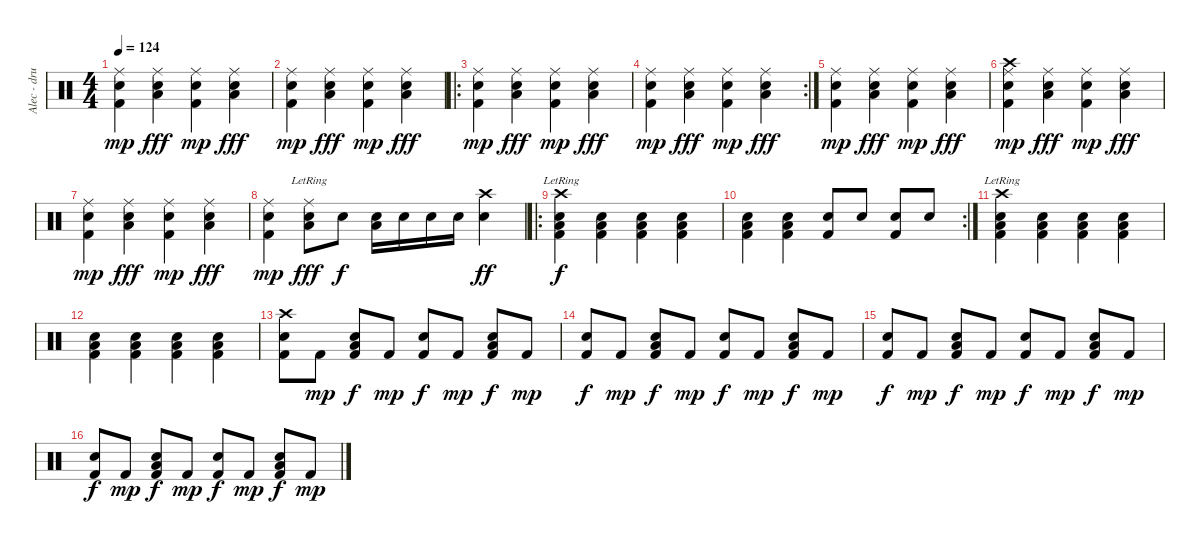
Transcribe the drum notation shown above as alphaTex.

\track ("Alec - drums" "Alec - dru") {instrument percussion}
\staff {score}
\articulation defaults
\ts (4 4)
\tempo 124
\clef neutral
\ks c
("Ride (middle)" "Snare (hit) 2" "Kick (hit) 2").4{dy mp} ("Ride (middle)" "Low Tom (hit)" "Snare (hit) 2").4{dy fff} ("Ride (middle)" "Snare (hit) 2" "Kick (hit) 2").4{dy mp} ("Ride (middle)" "Low Tom (hit)" "Snare (hit) 2").4{dy fff} |
("Ride (middle)" "Snare (hit) 2" "Kick (hit) 2").4{dy mp} ("Ride (middle)" "Low Tom (hit)" "Snare (hit) 2").4{dy fff} ("Ride (middle)" "Snare (hit) 2" "Kick (hit) 2").4{dy mp} ("Ride (middle)" "Low Tom (hit)" "Snare (hit) 2").4{dy fff} |
\ro
("Ride (middle)" "Snare (hit) 2" "Kick (hit) 2").4{dy mp} ("Ride (middle)" "Low Tom (hit)" "Snare (hit) 2").4{dy fff} ("Ride (middle)" "Snare (hit) 2" "Kick (hit) 2").4{dy mp} ("Ride (middle)" "Low Tom (hit)" "Snare (hit) 2").4{dy fff} |
\rc 2
("Ride (middle)" "Snare (hit) 2" "Kick (hit) 2").4{dy mp} ("Ride (middle)" "Low Tom (hit)" "Snare (hit) 2").4{dy fff} ("Ride (middle)" "Snare (hit) 2" "Kick (hit) 2").4{dy mp} ("Ride (middle)" "Low Tom (hit)" "Snare (hit) 2").4{dy fff} |
("Ride (middle)" "Snare (hit) 2" "Kick (hit) 2").4{dy mp} ("Ride (middle)" "Low Tom (hit)" "Snare (hit) 2").4{dy fff} ("Ride (middle)" "Snare (hit) 2" "Kick (hit) 2").4{dy mp} ("Ride (middle)" "Low Tom (hit)" "Snare (hit) 2").4{dy fff} |
("Crash high (hit)" "Ride (middle)" "Snare (hit) 2" "Kick (hit) 2").4{dy mp} ("Ride (middle)" "Low Tom (hit)" "Snare (hit) 2").4{dy fff} ("Ride (middle)" "Snare (hit) 2" "Kick (hit) 2").4{dy mp} ("Ride (middle)" "Low Tom (hit)" "Snare (hit) 2").4{dy fff} |
("Ride (middle)" "Snare (hit) 2" "Kick (hit) 2").4{dy mp} ("Ride (middle)" "Low Tom (hit)" "Snare (hit) 2").4{dy fff} ("Ride (middle)" "Snare (hit) 2" "Kick (hit) 2").4{dy mp} ("Ride (middle)" "Low Tom (hit)" "Snare (hit) 2").4{dy fff} |
("Ride (middle)" "Snare (hit) 2" "Kick (hit) 2").4{dy mp} ("Ride (middle)"{lr} "Low Tom (hit)"{lr} "Snare (hit) 2").8{dy fff} "Snare (hit) 2".8{dy f} ("Low Tom (hit)" "Snare (hit) 2").16 "Snare (hit) 2".16 "Snare (hit) 2".16 "Snare (hit) 2".16 ("Crash high (hit)" "Snare (hit) 2").4{dy ff} |
\ro
("Crash high (hit)"{lr} "Kick (hit) 2" "Snare (hit) 2" "Low Tom (hit)").4{dy f} ("Kick (hit) 2" "Snare (hit) 2" "Low Tom (hit)").4 ("Kick (hit) 2" "Snare (hit) 2" "Low Tom (hit)").4 ("Kick (hit) 2" "Snare (hit) 2" "Low Tom (hit)").4 |
\rc 2
("Kick (hit) 2" "Snare (hit) 2" "Low Tom (hit)").4 ("Kick (hit) 2" "Snare (hit) 2" "Low Tom (hit)").4 ("Kick (hit) 2" "Snare (hit) 2").8 "Snare (hit) 2".8 ("Kick (hit) 2" "Snare (hit) 2").8 "Snare (hit) 2".8 |
("Crash high (hit)"{lr} "Kick (hit) 2" "Snare (hit) 2" "Low Tom (hit)").4 ("Kick (hit) 2" "Snare (hit) 2" "Low Tom (hit)").4 ("Kick (hit) 2" "Snare (hit) 2" "Low Tom (hit)").4 ("Kick (hit) 2" "Snare (hit) 2" "Low Tom (hit)").4 |
("Kick (hit) 2" "Snare (hit) 2" "Low Tom (hit)").4 ("Kick (hit) 2" "Snare (hit) 2" "Low Tom (hit)").4 ("Kick (hit) 2" "Snare (hit) 2" "Low Tom (hit)").4 ("Kick (hit) 2" "Snare (hit) 2" "Low Tom (hit)").4 |
("Kick (hit) 2" "Snare (hit) 2" "Crash high (hit)").8 "Kick (hit) 2".8{dy mp} ("Kick (hit) 2" "Snare (hit) 2" "Low Tom (hit)").8{dy f} "Kick (hit) 2".8{dy mp} ("Kick (hit) 2" "Snare (hit) 2").8{dy f} "Kick (hit) 2".8{dy mp} ("Kick (hit) 2" "Snare (hit) 2" "Low Tom (hit)").8{dy f} "Kick (hit) 2".8{dy mp} |
("Kick (hit) 2" "Snare (hit) 2").8{dy f} "Kick (hit) 2".8{dy mp} ("Kick (hit) 2" "Snare (hit) 2" "Low Tom (hit)").8{dy f} "Kick (hit) 2".8{dy mp} ("Kick (hit) 2" "Snare (hit) 2").8{dy f} "Kick (hit) 2".8{dy mp} ("Kick (hit) 2" "Snare (hit) 2" "Low Tom (hit)").8{dy f} "Kick (hit) 2".8{dy mp} |
("Kick (hit) 2" "Snare (hit) 2").8{dy f} "Kick (hit) 2".8{dy mp} ("Kick (hit) 2" "Snare (hit) 2" "Low Tom (hit)").8{dy f} "Kick (hit) 2".8{dy mp} ("Kick (hit) 2" "Snare (hit) 2").8{dy f} "Kick (hit) 2".8{dy mp} ("Kick (hit) 2" "Snare (hit) 2" "Low Tom (hit)").8{dy f} "Kick (hit) 2".8{dy mp} |
("Kick (hit) 2" "Snare (hit) 2").8{dy f} "Kick (hit) 2".8{dy mp} ("Kick (hit) 2" "Snare (hit) 2" "Low Tom (hit)").8{dy f} "Kick (hit) 2".8{dy mp} ("Kick (hit) 2" "Snare (hit) 2").8{dy f} "Kick (hit) 2".8{dy mp} ("Kick (hit) 2" "Snare (hit) 2" "Low Tom (hit)").8{dy f} "Kick (hit) 2".8{dy mp}
